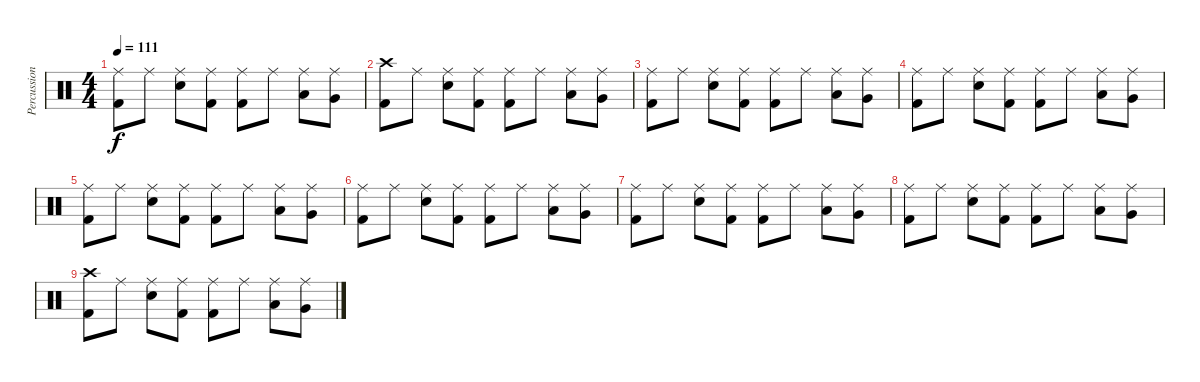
\track ("Percussion" "Percussion") {instrument percussion}
\staff {score}
\articulation defaults
\ts (4 4)
\tempo 111
\clef neutral
\ks c
("Ride (middle)" "Kick (hit) 2").8{dy f} "Ride (middle)".8 ("Ride (middle)" "Electric Snare (hit)").8 ("Ride (middle)" "Kick (hit) 2").8 ("Ride (middle)" "Kick (hit) 2").8 "Ride (middle)".8 ("Ride (middle)" "Low Tom (hit)").8 ("Ride (middle)" "Very Low Tom (hit)").8 |
("Crash high (hit)" "Kick (hit) 2").8 "Ride (middle)".8 ("Ride (middle)" "Electric Snare (hit)").8 ("Ride (middle)" "Kick (hit) 2").8 ("Ride (middle)" "Kick (hit) 2").8 "Ride (middle)".8 ("Ride (middle)" "Low Tom (hit)").8 ("Ride (middle)" "Very Low Tom (hit)").8 |
("Ride (middle)" "Kick (hit) 2").8 "Ride (middle)".8 ("Ride (middle)" "Electric Snare (hit)").8 ("Ride (middle)" "Kick (hit) 2").8 ("Ride (middle)" "Kick (hit) 2").8 "Ride (middle)".8 ("Ride (middle)" "Low Tom (hit)").8 ("Ride (middle)" "Very Low Tom (hit)").8 |
("Ride (middle)" "Kick (hit) 2").8 "Ride (middle)".8 ("Ride (middle)" "Electric Snare (hit)").8 ("Ride (middle)" "Kick (hit) 2").8 ("Ride (middle)" "Kick (hit) 2").8 "Ride (middle)".8 ("Ride (middle)" "Low Tom (hit)").8 ("Ride (middle)" "Very Low Tom (hit)").8 |
("Ride (middle)" "Kick (hit) 2").8 "Ride (middle)".8 ("Ride (middle)" "Electric Snare (hit)").8 ("Ride (middle)" "Kick (hit) 2").8 ("Ride (middle)" "Kick (hit) 2").8 "Ride (middle)".8 ("Ride (middle)" "Low Tom (hit)").8 ("Ride (middle)" "Very Low Tom (hit)").8 |
("Ride (middle)" "Kick (hit) 2").8 "Ride (middle)".8 ("Ride (middle)" "Electric Snare (hit)").8 ("Ride (middle)" "Kick (hit) 2").8 ("Ride (middle)" "Kick (hit) 2").8 "Ride (middle)".8 ("Ride (middle)" "Low Tom (hit)").8 ("Ride (middle)" "Very Low Tom (hit)").8 |
("Ride (middle)" "Kick (hit) 2").8 "Ride (middle)".8 ("Ride (middle)" "Electric Snare (hit)").8 ("Ride (middle)" "Kick (hit) 2").8 ("Ride (middle)" "Kick (hit) 2").8 "Ride (middle)".8 ("Ride (middle)" "Low Tom (hit)").8 ("Ride (middle)" "Very Low Tom (hit)").8 |
("Ride (middle)" "Kick (hit) 2").8 "Ride (middle)".8 ("Ride (middle)" "Electric Snare (hit)").8 ("Ride (middle)" "Kick (hit) 2").8 ("Ride (middle)" "Kick (hit) 2").8 "Ride (middle)".8 ("Ride (middle)" "Low Tom (hit)").8 ("Ride (middle)" "Very Low Tom (hit)").8 |
("Crash high (hit)" "Kick (hit) 2").8 "Ride (middle)".8 ("Ride (middle)" "Electric Snare (hit)").8 ("Ride (middle)" "Kick (hit) 2").8 ("Ride (middle)" "Kick (hit) 2").8 "Ride (middle)".8 ("Ride (middle)" "Low Tom (hit)").8 ("Ride (middle)" "Very Low Tom (hit)").8
